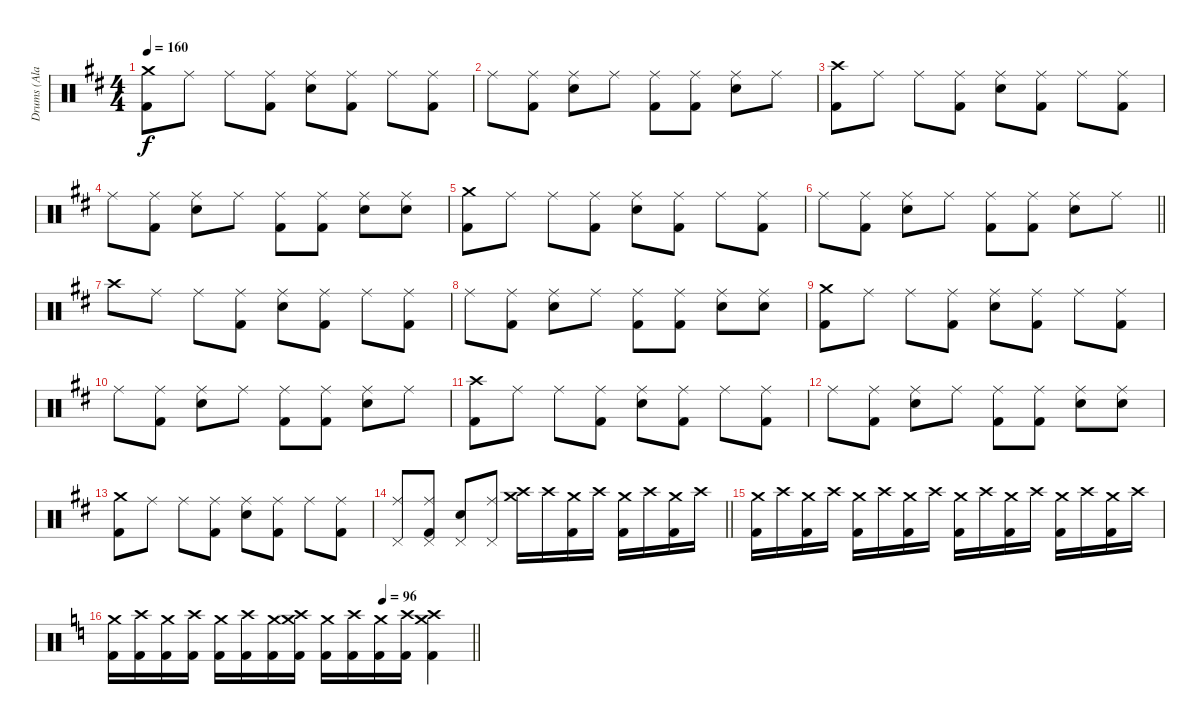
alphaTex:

\track ("Drums (Ala Burns)" "Drums (Ala") {instrument percussion}
\staff {score}
\articulation defaults
\ts (4 4)
\tempo 160
\clef neutral
\ks d
("Crash medium (hit)" "Kick (hit) 2").8{dy f} "Ride (middle)".8 "Ride (middle)".8 ("Ride (middle)" "Kick (hit) 2").8 ("Ride (middle)" "Snare (hit) 2").8 ("Ride (middle)" "Kick (hit) 2").8 "Ride (middle)".8 ("Ride (middle)" "Kick (hit) 2").8 |
"Ride (middle)".8 ("Ride (middle)" "Kick (hit) 2").8 ("Ride (middle)" "Snare (hit) 2").8 "Ride (middle)".8 ("Ride (middle)" "Kick (hit) 2").8 ("Ride (middle)" "Kick (hit) 2").8 ("Ride (middle)" "Snare (hit) 2").8 "Ride (middle)".8 |
("Crash high (hit)" "Kick (hit) 2").8 "Ride (middle)".8 "Ride (middle)".8 ("Ride (middle)" "Kick (hit) 2").8 ("Ride (middle)" "Snare (hit) 2").8 ("Ride (middle)" "Kick (hit) 2").8 "Ride (middle)".8 ("Ride (middle)" "Kick (hit) 2").8 |
"Ride (middle)".8 ("Ride (middle)" "Kick (hit) 2").8 ("Ride (middle)" "Snare (hit) 2").8 "Ride (middle)".8 ("Ride (middle)" "Kick (hit) 2").8 ("Ride (middle)" "Kick (hit) 2").8 ("Ride (middle)" "Snare (hit) 2").8 ("Ride (middle)" "Snare (hit) 2").8 |
("Crash medium (hit)" "Kick (hit) 2").8 "Ride (middle)".8 "Ride (middle)".8 ("Ride (middle)" "Kick (hit) 2").8 ("Ride (middle)" "Snare (hit) 2").8 ("Ride (middle)" "Kick (hit) 2").8 "Ride (middle)".8 ("Ride (middle)" "Kick (hit) 2").8 |
\barLineRight lightlight "Ride (middle)".8
("Ride (middle)" "Kick (hit) 2").8 ("Ride (middle)" "Snare (hit) 2").8 "Ride (middle)".8 ("Ride (middle)" "Kick (hit) 2").8 ("Ride (middle)" "Kick (hit) 2").8 ("Ride (middle)" "Snare (hit) 2").8 "Ride (middle)".8 |
"Crash high (hit)".8 "Ride (middle)".8 "Ride (middle)".8 ("Ride (middle)" "Kick (hit) 2").8 ("Ride (middle)" "Snare (hit) 2").8 ("Ride (middle)" "Kick (hit) 2").8 "Ride (middle)".8 ("Ride (middle)" "Kick (hit) 2").8 |
"Ride (middle)".8 ("Ride (middle)" "Kick (hit) 2").8 ("Ride (middle)" "Snare (hit) 2").8 "Ride (middle)".8 ("Ride (middle)" "Kick (hit) 2").8 ("Ride (middle)" "Kick (hit) 2").8 ("Ride (middle)" "Snare (hit) 2").8 ("Ride (middle)" "Snare (hit) 2").8 |
("Crash medium (hit)" "Kick (hit) 2").8 "Ride (middle)".8 "Ride (middle)".8 ("Ride (middle)" "Kick (hit) 2").8 ("Ride (middle)" "Snare (hit) 2").8 ("Ride (middle)" "Kick (hit) 2").8 "Ride (middle)".8 ("Ride (middle)" "Kick (hit) 2").8 |
"Ride (middle)".8 ("Ride (middle)" "Kick (hit) 2").8 ("Ride (middle)" "Snare (hit) 2").8 "Ride (middle)".8 ("Ride (middle)" "Kick (hit) 2").8 ("Ride (middle)" "Kick (hit) 2").8 ("Ride (middle)" "Snare (hit) 2").8 "Ride (middle)".8 |
("Crash high (hit)" "Kick (hit) 2").8 "Ride (middle)".8 "Ride (middle)".8 ("Ride (middle)" "Kick (hit) 2").8 ("Ride (middle)" "Snare (hit) 2").8 ("Ride (middle)" "Kick (hit) 2").8 "Ride (middle)".8 ("Ride (middle)" "Kick (hit) 2").8 |
"Ride (middle)".8 ("Ride (middle)" "Kick (hit) 2").8 ("Ride (middle)" "Snare (hit) 2").8 "Ride (middle)".8 ("Ride (middle)" "Kick (hit) 2").8 ("Ride (middle)" "Kick (hit) 2").8 ("Ride (middle)" "Snare (hit) 2").8 ("Ride (middle)" "Snare (hit) 2").8 |
("Crash medium (hit)" "Kick (hit) 2").8 "Ride (middle)".8 "Ride (middle)".8 ("Ride (middle)" "Kick (hit) 2").8 ("Ride (middle)" "Snare (hit) 2").8 ("Ride (middle)" "Kick (hit) 2").8 "Ride (middle)".8 ("Ride (middle)" "Kick (hit) 2").8 |
\barLineRight lightlight
("Ride (middle)" "Pedal Hi-Hat (hit)").8 ("Ride (middle)" "Pedal Hi-Hat (hit)" "Kick (hit) 2").8 ("Snare (hit) 2" "Pedal Hi-Hat (hit)").8 ("Ride (middle)" "Pedal Hi-Hat (hit)").8 ("Crash medium (hit)" "Crash high (hit)").16 "Crash high (hit)".16 ("Crash medium (hit)" "Kick (hit) 2").16 "Crash high (hit)".16 ("Crash medium (hit)" "Kick (hit) 2").16 "Crash high (hit)".16 ("Crash medium (hit)" "Kick (hit) 2").16 "Crash high (hit)".16 |
("Crash medium (hit)" "Kick (hit) 2").16 "Crash high (hit)".16 ("Crash medium (hit)" "Kick (hit) 2").16 "Crash high (hit)".16 ("Crash medium (hit)" "Kick (hit) 2").16 "Crash high (hit)".16 ("Crash medium (hit)" "Kick (hit) 2").16 "Crash high (hit)".16 ("Crash medium (hit)" "Kick (hit) 2").16 "Crash high (hit)".16 ("Crash medium (hit)" "Kick (hit) 2").16 "Crash high (hit)".16 ("Crash medium (hit)" "Kick (hit) 2").16 "Crash high (hit)".16 ("Crash medium (hit)" "Kick (hit) 2").16 "Crash high (hit)".16 |
\tempo (96 0.75)
\barLineRight lightlight
\ks c
("Crash medium (hit)" "Kick (hit) 2").16 ("Crash high (hit)" "Kick (hit) 2").16 ("Crash medium (hit)" "Kick (hit) 2").16 ("Crash high (hit)" "Kick (hit) 2").16 ("Crash medium (hit)" "Kick (hit) 2").16 ("Crash high (hit)" "Kick (hit) 2").16 ("Crash medium (hit)" "Kick (hit) 2").16 ("Crash high (hit)" "Crash medium (hit)" "Kick (hit) 2").16 ("Crash medium (hit)" "Kick (hit) 2").16 ("Crash high (hit)" "Kick (hit) 2").16 ("Crash medium (hit)" "Kick (hit) 2").16 ("Crash high (hit)" "Kick (hit) 2").16 ("Crash medium (hit)" "Crash high (hit)" "Kick (hit) 2").4
